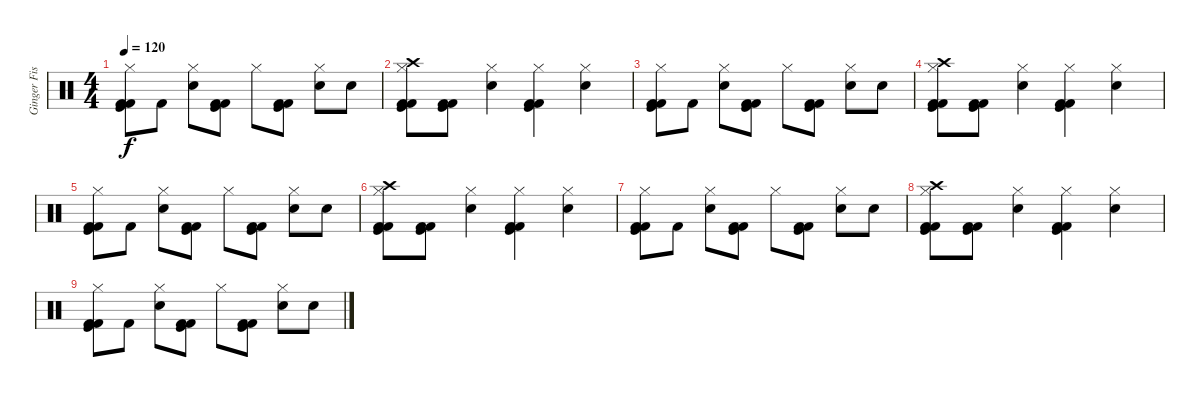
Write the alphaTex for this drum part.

\track ("Ginger Fish" "Ginger Fis") {instrument percussion}
\staff {score}
\articulation defaults
\ts (4 4)
\tempo 120
\clef neutral
\ks c
("Hi-Hat (closed)" "Kick (hit) 2" "Kick (hit)" "Kick (hit) 2").8{dy f} "Kick (hit) 2".8 ("Hi-Hat (closed)" "Electric Snare (hit)").8 ("Kick (hit) 2" "Kick (hit)" "Kick (hit) 2").8 "Hi-Hat (closed)".8 ("Kick (hit) 2" "Kick (hit)" "Kick (hit) 2").8 ("Hi-Hat (closed)" "Electric Snare (hit)").8 "Electric Snare (hit)".8 |
("Crash high (hit)" "Hi-Hat (closed)" "Kick (hit) 2" "Kick (hit)" "Kick (hit) 2").8 ("Kick (hit) 2" "Kick (hit)" "Kick (hit) 2").8 ("Hi-Hat (closed)" "Electric Snare (hit)").4 ("Hi-Hat (closed)" "Kick (hit) 2" "Kick (hit)" "Kick (hit) 2").4 ("Hi-Hat (closed)" "Electric Snare (hit)").4 |
("Hi-Hat (closed)" "Kick (hit) 2" "Kick (hit)" "Kick (hit) 2").8 "Kick (hit) 2".8 ("Hi-Hat (closed)" "Electric Snare (hit)").8 ("Kick (hit) 2" "Kick (hit)" "Kick (hit) 2").8 "Hi-Hat (closed)".8 ("Kick (hit) 2" "Kick (hit)" "Kick (hit) 2").8 ("Hi-Hat (closed)" "Electric Snare (hit)").8 "Electric Snare (hit)".8 |
("Crash high (hit)" "Hi-Hat (closed)" "Kick (hit) 2" "Kick (hit)" "Kick (hit) 2").8 ("Kick (hit) 2" "Kick (hit)" "Kick (hit) 2").8 ("Hi-Hat (closed)" "Electric Snare (hit)").4 ("Hi-Hat (closed)" "Kick (hit) 2" "Kick (hit)" "Kick (hit) 2").4 ("Hi-Hat (closed)" "Electric Snare (hit)").4 |
("Hi-Hat (closed)" "Kick (hit) 2" "Kick (hit)" "Kick (hit) 2").8 "Kick (hit) 2".8 ("Hi-Hat (closed)" "Electric Snare (hit)").8 ("Kick (hit) 2" "Kick (hit)" "Kick (hit) 2").8 "Hi-Hat (closed)".8 ("Kick (hit) 2" "Kick (hit)" "Kick (hit) 2").8 ("Hi-Hat (closed)" "Electric Snare (hit)").8 "Electric Snare (hit)".8 |
("Crash high (hit)" "Hi-Hat (closed)" "Kick (hit) 2" "Kick (hit)" "Kick (hit) 2").8 ("Kick (hit) 2" "Kick (hit)" "Kick (hit) 2").8 ("Hi-Hat (closed)" "Electric Snare (hit)").4 ("Hi-Hat (closed)" "Kick (hit) 2" "Kick (hit)" "Kick (hit) 2").4 ("Hi-Hat (closed)" "Electric Snare (hit)").4 |
("Hi-Hat (closed)" "Kick (hit) 2" "Kick (hit)" "Kick (hit) 2").8 "Kick (hit) 2".8 ("Hi-Hat (closed)" "Electric Snare (hit)").8 ("Kick (hit) 2" "Kick (hit)" "Kick (hit) 2").8 "Hi-Hat (closed)".8 ("Kick (hit) 2" "Kick (hit)" "Kick (hit) 2").8 ("Hi-Hat (closed)" "Electric Snare (hit)").8 "Electric Snare (hit)".8 |
("Crash high (hit)" "Hi-Hat (closed)" "Kick (hit) 2" "Kick (hit)" "Kick (hit) 2").8 ("Kick (hit) 2" "Kick (hit)" "Kick (hit) 2").8 ("Hi-Hat (closed)" "Electric Snare (hit)").4 ("Hi-Hat (closed)" "Kick (hit) 2" "Kick (hit)" "Kick (hit) 2").4 ("Hi-Hat (closed)" "Electric Snare (hit)").4 |
("Hi-Hat (closed)" "Kick (hit) 2" "Kick (hit)" "Kick (hit) 2").8 "Kick (hit) 2".8 ("Hi-Hat (closed)" "Electric Snare (hit)").8 ("Kick (hit) 2" "Kick (hit)" "Kick (hit) 2").8 "Hi-Hat (closed)".8 ("Kick (hit) 2" "Kick (hit)" "Kick (hit) 2").8 ("Hi-Hat (closed)" "Electric Snare (hit)").8 "Electric Snare (hit)".8
